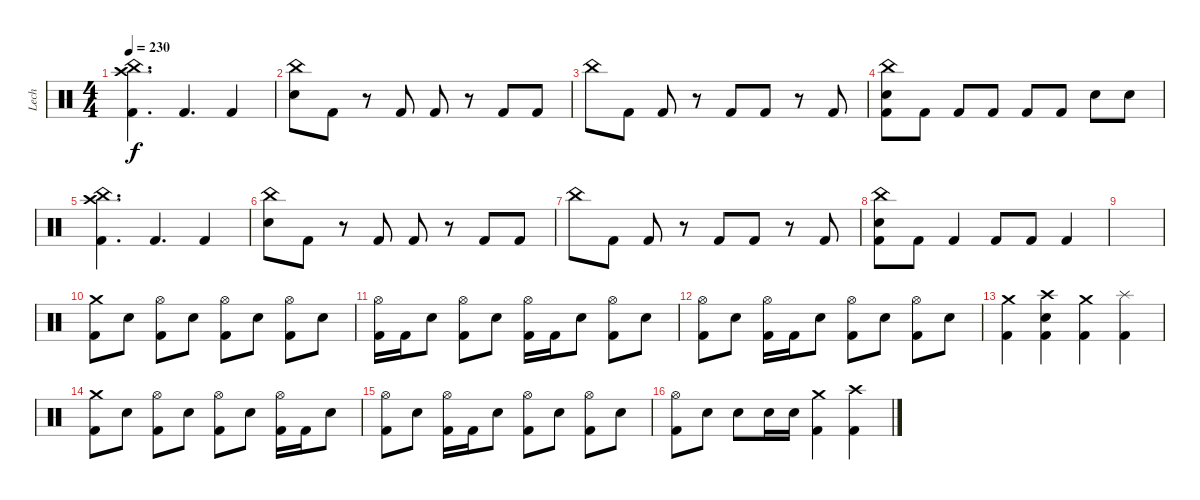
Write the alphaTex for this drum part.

\track ("Lech" "Lech") {instrument percussion}
\staff {score}
\articulation defaults
\ts (4 4)
\tempo 230
\clef neutral
\ks c
("China (hit)" "Crash high (hit)" "Kick (hit) 2").4{d dy f} "Kick (hit) 2".4{d} "Kick (hit) 2".4 |
("China (hit)" "Electric Snare (hit)").8 "Kick (hit) 2".8 r.8 "Kick (hit) 2".8 "Kick (hit) 2".8 r.8 "Kick (hit) 2".8 "Kick (hit) 2".8 |
"China (hit)".8 "Kick (hit) 2".8 "Kick (hit) 2".8 r.8 "Kick (hit) 2".8 "Kick (hit) 2".8 r.8 "Kick (hit) 2".8 |
("China (hit)" "Electric Snare (hit)" "Kick (hit) 2").8 "Kick (hit) 2".8 "Kick (hit) 2".8 "Kick (hit) 2".8 "Kick (hit) 2".8 "Kick (hit) 2".8 "Electric Snare (hit)".8 "Electric Snare (hit)".8 |
("China (hit)" "Crash high (hit)" "Kick (hit) 2").4{d} "Kick (hit) 2".4{d} "Kick (hit) 2".4 |
("China (hit)" "Electric Snare (hit)").8 "Kick (hit) 2".8 r.8 "Kick (hit) 2".8 "Kick (hit) 2".8 r.8 "Kick (hit) 2".8 "Kick (hit) 2".8 |
"China (hit)".8 "Kick (hit) 2".8 "Kick (hit) 2".8 r.8 "Kick (hit) 2".8 "Kick (hit) 2".8 r.8 "Kick (hit) 2".8 |
("China (hit)" "Electric Snare (hit)" "Kick (hit) 2").8 "Kick (hit) 2".8 "Kick (hit) 2".4 "Kick (hit) 2".8 "Kick (hit) 2".8 "Kick (hit) 2".4 |
|
("Crash medium (hit)" "Kick (hit) 2").8 "Electric Snare (hit)".8 ("Hi-Hat (open)" "Kick (hit) 2").8 "Electric Snare (hit)".8 ("Hi-Hat (open)" "Kick (hit) 2").8 "Electric Snare (hit)".8 ("Hi-Hat (open)" "Kick (hit) 2").8 "Electric Snare (hit)".8 |
("Hi-Hat (open)" "Kick (hit) 2").16 "Kick (hit) 2".16 "Electric Snare (hit)".8 ("Hi-Hat (open)" "Kick (hit) 2").8 "Electric Snare (hit)".8 ("Hi-Hat (open)" "Kick (hit) 2").16 "Kick (hit) 2".16 "Electric Snare (hit)".8 ("Hi-Hat (open)" "Kick (hit) 2").8 "Electric Snare (hit)".8 |
("Hi-Hat (open)" "Kick (hit) 2").8 "Electric Snare (hit)".8 ("Hi-Hat (open)" "Kick (hit) 2").16 "Kick (hit) 2".16 "Electric Snare (hit)".8 ("Hi-Hat (open)" "Kick (hit) 2").8 "Electric Snare (hit)".8 ("Hi-Hat (open)" "Kick (hit) 2").8 "Electric Snare (hit)".8 |
("Crash medium (hit)" "Kick (hit) 2").4 ("Crash high (hit)" "Electric Snare (hit)" "Kick (hit) 2").4 ("Crash medium (hit)" "Kick (hit) 2").4 ("Splash (hit)" "Kick (hit) 2").4 |
("Crash medium (hit)" "Kick (hit) 2").8 "Electric Snare (hit)".8 ("Hi-Hat (open)" "Kick (hit) 2").8 "Electric Snare (hit)".8 ("Hi-Hat (open)" "Kick (hit) 2").8 "Electric Snare (hit)".8 ("Hi-Hat (open)" "Kick (hit) 2").16 "Kick (hit) 2".16 "Electric Snare (hit)".8 |
("Hi-Hat (open)" "Kick (hit) 2").8 "Electric Snare (hit)".8 ("Hi-Hat (open)" "Kick (hit) 2").16 "Kick (hit) 2".16 "Electric Snare (hit)".8 ("Hi-Hat (open)" "Kick (hit) 2").8 "Electric Snare (hit)".8 ("Hi-Hat (open)" "Kick (hit) 2").8 "Electric Snare (hit)".8 |
("Hi-Hat (open)" "Kick (hit) 2").8 "Electric Snare (hit)".8 "Electric Snare (hit)".8 "Electric Snare (hit)".16 "Electric Snare (hit)".16 ("Crash medium (hit)" "Kick (hit) 2").4 ("Crash high (hit)" "Kick (hit) 2").4
